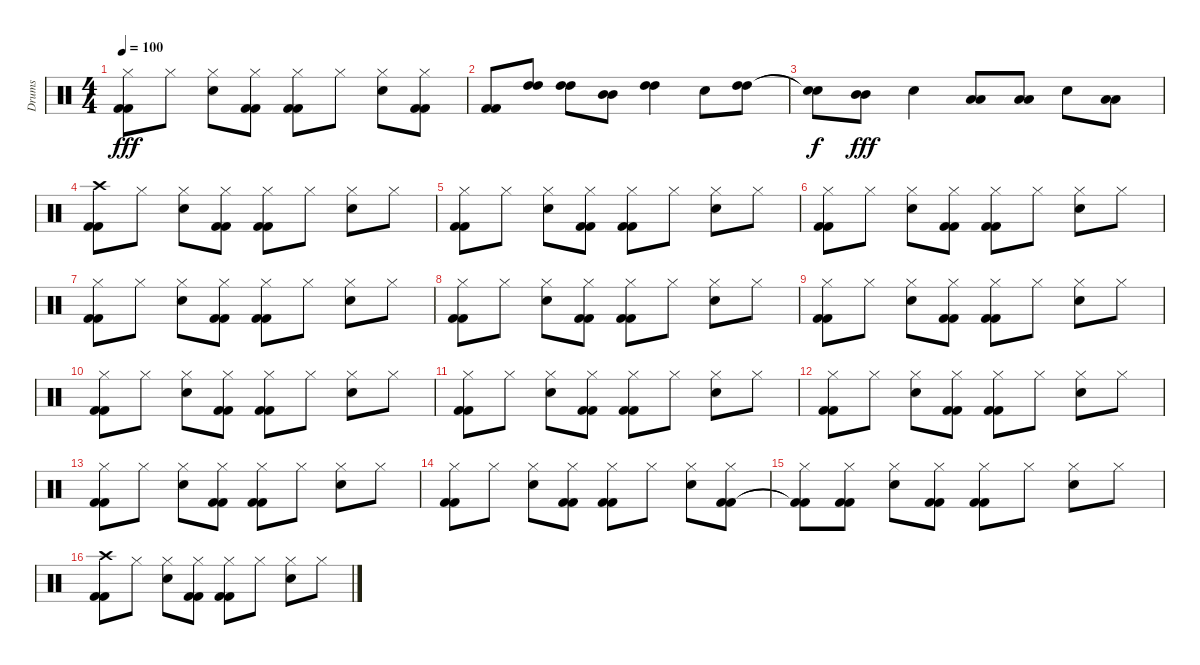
\track ("Drums" "Drums") {instrument percussion}
\staff {score}
\articulation defaults
\ts (4 4)
\tempo 100
\clef neutral
\ks c
("Hi-Hat (closed)" "Kick (hit) 2" "Kick (hit) 2").8{dy fff} "Hi-Hat (closed)".8 ("Hi-Hat (closed)" "Electric Snare (hit)").8 ("Hi-Hat (closed)" "Kick (hit) 2" "Kick (hit) 2").8 ("Hi-Hat (closed)" "Kick (hit) 2" "Kick (hit) 2").8 "Hi-Hat (closed)".8 ("Hi-Hat (closed)" "Electric Snare (hit)").8 ("Hi-Hat (closed)" "Kick (hit) 2" "Kick (hit) 2").8 |
("Kick (hit) 2" "Kick (hit) 2").8 ("High Tom (hit)" "High Tom (hit)").8 ("High Tom (hit)" "High Tom (hit)").8 ("Mid Tom (hit)" "Mid Tom (hit)").8 ("High Tom (hit)" "High Tom (hit)").4 "Electric Snare (hit)".8 ("High Tom (hit)" "High Tom (hit)").8 |
("Snare (hit)"{t} "Snare (hit)"{t}).8{dy f} ("Mid Tom (hit)" "Mid Tom (hit)").8{dy fff} "Electric Snare (hit)".4 ("Low Tom (hit)" "Low Tom (hit)").8 ("Low Tom (hit)" "Low Tom (hit)").8 "Electric Snare (hit)".8 ("Low Tom (hit)" "Low Tom (hit)").8 |
("Crash high (hit)" "Kick (hit) 2" "Kick (hit) 2").8 "Hi-Hat (closed)".8 ("Hi-Hat (closed)" "Electric Snare (hit)").8 ("Hi-Hat (closed)" "Kick (hit) 2" "Kick (hit) 2").8 ("Hi-Hat (closed)" "Kick (hit) 2" "Kick (hit) 2").8 "Hi-Hat (closed)".8 ("Hi-Hat (closed)" "Electric Snare (hit)").8 "Hi-Hat (closed)".8 |
("Hi-Hat (closed)" "Kick (hit) 2" "Kick (hit) 2").8 "Hi-Hat (closed)".8 ("Hi-Hat (closed)" "Electric Snare (hit)").8 ("Hi-Hat (closed)" "Kick (hit) 2" "Kick (hit) 2").8 ("Hi-Hat (closed)" "Kick (hit) 2" "Kick (hit) 2").8 "Hi-Hat (closed)".8 ("Hi-Hat (closed)" "Electric Snare (hit)").8 "Hi-Hat (closed)".8 |
("Hi-Hat (closed)" "Kick (hit) 2" "Kick (hit) 2").8 "Hi-Hat (closed)".8 ("Hi-Hat (closed)" "Electric Snare (hit)").8 ("Hi-Hat (closed)" "Kick (hit) 2" "Kick (hit) 2").8 ("Hi-Hat (closed)" "Kick (hit) 2" "Kick (hit) 2").8 "Hi-Hat (closed)".8 ("Hi-Hat (closed)" "Electric Snare (hit)").8 "Hi-Hat (closed)".8 |
("Hi-Hat (closed)" "Kick (hit) 2" "Kick (hit) 2").8 "Hi-Hat (closed)".8 ("Hi-Hat (closed)" "Electric Snare (hit)").8 ("Hi-Hat (closed)" "Kick (hit) 2" "Kick (hit) 2").8 ("Hi-Hat (closed)" "Kick (hit) 2" "Kick (hit) 2").8 "Hi-Hat (closed)".8 ("Hi-Hat (closed)" "Electric Snare (hit)").8 "Hi-Hat (closed)".8 |
("Hi-Hat (closed)" "Kick (hit) 2" "Kick (hit) 2").8 "Hi-Hat (closed)".8 ("Hi-Hat (closed)" "Electric Snare (hit)").8 ("Hi-Hat (closed)" "Kick (hit) 2" "Kick (hit) 2").8 ("Hi-Hat (closed)" "Kick (hit) 2" "Kick (hit) 2").8 "Hi-Hat (closed)".8 ("Hi-Hat (closed)" "Electric Snare (hit)").8 "Hi-Hat (closed)".8 |
("Hi-Hat (closed)" "Kick (hit) 2" "Kick (hit) 2").8 "Hi-Hat (closed)".8 ("Hi-Hat (closed)" "Electric Snare (hit)").8 ("Hi-Hat (closed)" "Kick (hit) 2" "Kick (hit) 2").8 ("Hi-Hat (closed)" "Kick (hit) 2" "Kick (hit) 2").8 "Hi-Hat (closed)".8 ("Hi-Hat (closed)" "Electric Snare (hit)").8 "Hi-Hat (closed)".8 |
("Hi-Hat (closed)" "Kick (hit) 2" "Kick (hit) 2").8 "Hi-Hat (closed)".8 ("Hi-Hat (closed)" "Electric Snare (hit)").8 ("Hi-Hat (closed)" "Kick (hit) 2" "Kick (hit) 2").8 ("Hi-Hat (closed)" "Kick (hit) 2" "Kick (hit) 2").8 "Hi-Hat (closed)".8 ("Hi-Hat (closed)" "Electric Snare (hit)").8 "Hi-Hat (closed)".8 |
("Hi-Hat (closed)" "Kick (hit) 2" "Kick (hit) 2").8 "Hi-Hat (closed)".8 ("Hi-Hat (closed)" "Electric Snare (hit)").8 ("Hi-Hat (closed)" "Kick (hit) 2" "Kick (hit) 2").8 ("Hi-Hat (closed)" "Kick (hit) 2" "Kick (hit) 2").8 "Hi-Hat (closed)".8 ("Hi-Hat (closed)" "Electric Snare (hit)").8 "Hi-Hat (closed)".8 |
("Hi-Hat (closed)" "Kick (hit) 2" "Kick (hit) 2").8 "Hi-Hat (closed)".8 ("Hi-Hat (closed)" "Electric Snare (hit)").8 ("Hi-Hat (closed)" "Kick (hit) 2" "Kick (hit) 2").8 ("Hi-Hat (closed)" "Kick (hit) 2" "Kick (hit) 2").8 "Hi-Hat (closed)".8 ("Hi-Hat (closed)" "Electric Snare (hit)").8 "Hi-Hat (closed)".8 |
("Hi-Hat (closed)" "Kick (hit) 2" "Kick (hit) 2").8 "Hi-Hat (closed)".8 ("Hi-Hat (closed)" "Electric Snare (hit)").8 ("Hi-Hat (closed)" "Kick (hit) 2" "Kick (hit) 2").8 ("Hi-Hat (closed)" "Kick (hit) 2" "Kick (hit) 2").8 "Hi-Hat (closed)".8 ("Hi-Hat (closed)" "Electric Snare (hit)").8 "Hi-Hat (closed)".8 |
("Hi-Hat (closed)" "Kick (hit) 2" "Kick (hit) 2").8 "Hi-Hat (closed)".8 ("Hi-Hat (closed)" "Electric Snare (hit)").8 ("Hi-Hat (closed)" "Kick (hit) 2" "Kick (hit) 2").8 ("Hi-Hat (closed)" "Kick (hit) 2" "Kick (hit) 2").8 "Hi-Hat (closed)".8 ("Hi-Hat (closed)" "Electric Snare (hit)").8 ("Hi-Hat (closed)" "Kick (hit) 2" "Kick (hit) 2").8 |
("Hi-Hat (closed)" "Kick (hit) 2"{t} "Kick (hit) 2"{t}).8 ("Hi-Hat (closed)" "Kick (hit) 2" "Kick (hit) 2").8 ("Hi-Hat (closed)" "Electric Snare (hit)").8 ("Hi-Hat (closed)" "Kick (hit) 2" "Kick (hit) 2").8 ("Hi-Hat (closed)" "Kick (hit) 2" "Kick (hit) 2").8 "Hi-Hat (closed)".8 ("Hi-Hat (closed)" "Electric Snare (hit)").8 "Hi-Hat (closed)".8 |
("Crash high (hit)" "Kick (hit) 2" "Kick (hit) 2").8 "Hi-Hat (closed)".8 ("Hi-Hat (closed)" "Electric Snare (hit)").8 ("Hi-Hat (closed)" "Kick (hit) 2" "Kick (hit) 2").8 ("Hi-Hat (closed)" "Kick (hit) 2" "Kick (hit) 2").8 "Hi-Hat (closed)".8 ("Hi-Hat (closed)" "Electric Snare (hit)").8 "Hi-Hat (closed)".8
